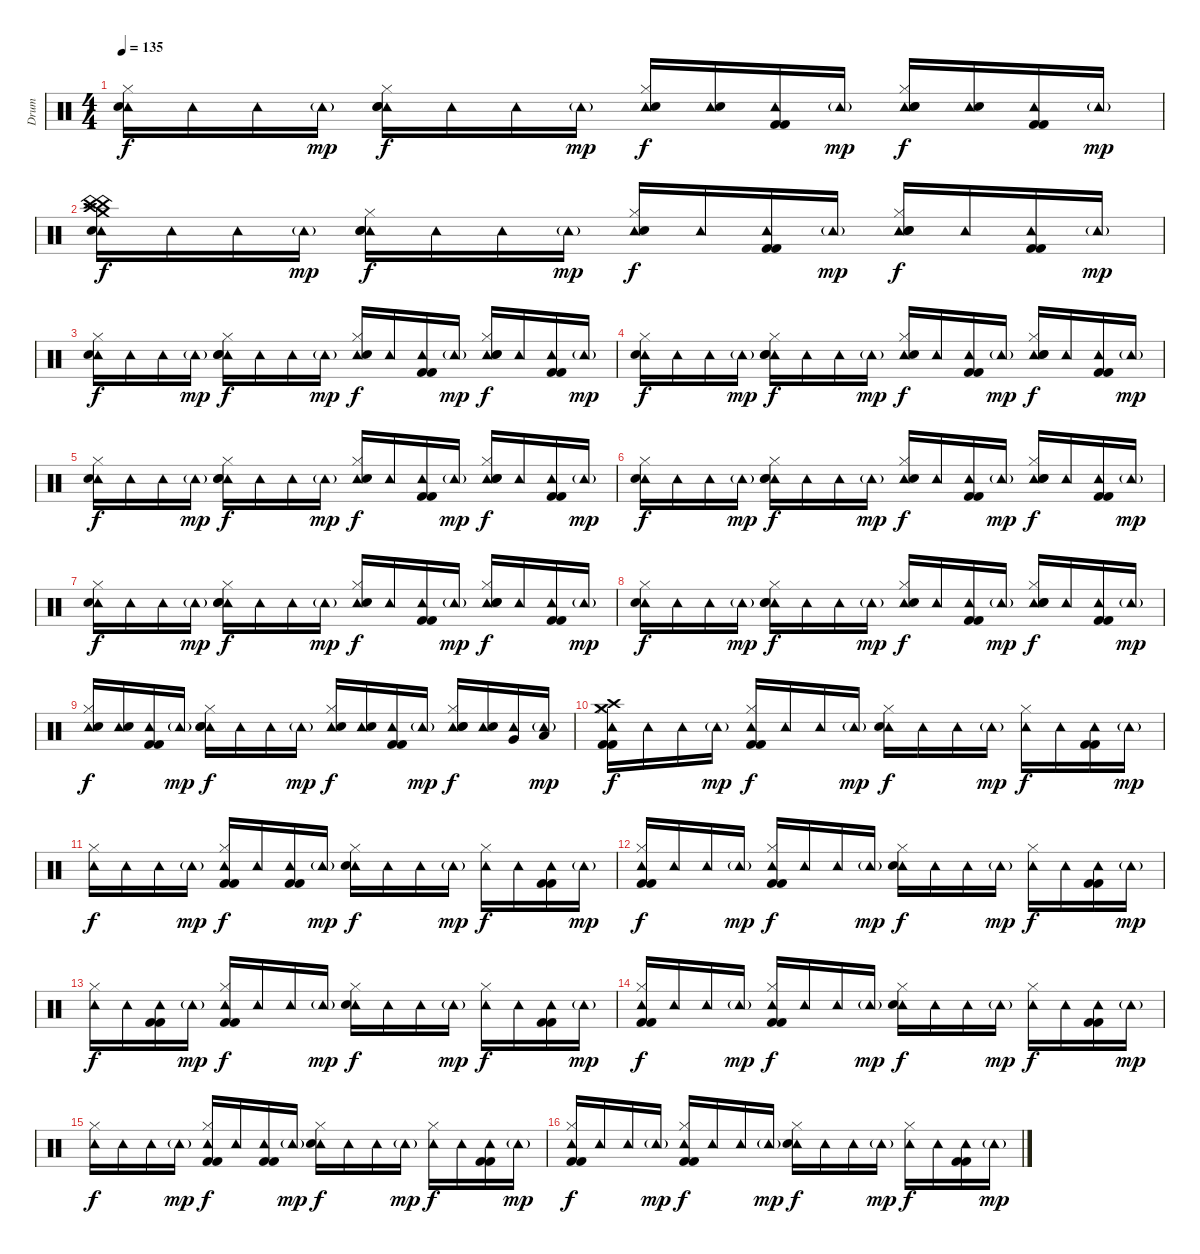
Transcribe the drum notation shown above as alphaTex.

\track ("Drum" "Drum") {instrument percussion}
\staff {score}
\articulation defaults
\ts (4 4)
\tempo 135
\clef neutral
\ks c
("Tambourine (hit)" "Hi-Hat (closed)" "Electric Snare (hit)").16{dy f} "Tambourine (hit)".16 "Tambourine (hit)".16 "Tambourine (hit)"{g}.16{dy mp} ("Tambourine (hit)" "Hi-Hat (closed)" "Hand Clap (hit)" "Electric Snare (hit)").16{dy f} "Tambourine (hit)".16 "Tambourine (hit)".16 "Tambourine (hit)"{g}.16{dy mp} ("Tambourine (hit)" "Hi-Hat (closed)" "Electric Snare (hit)").16{dy f} ("Tambourine (hit)" "Electric Snare (hit)").16 ("Tambourine (hit)" "Kick (hit) 2" "Kick (hit) 2").16 "Tambourine (hit)"{g}.16{dy mp} ("Tambourine (hit)" "Hi-Hat (closed)" "Hand Clap (hit)" "Electric Snare (hit)").16{dy f} ("Tambourine (hit)" "Electric Snare (hit)").16 ("Tambourine (hit)" "Kick (hit) 2" "Kick (hit) 2").16 "Tambourine (hit)"{g}.16{dy mp} |
("China (hit)" "Tambourine (hit)" "Crash medium (hit)" "China (hit)" "Electric Snare (hit)" "Crash high (hit)").16{dy f} "Tambourine (hit)".16 "Tambourine (hit)".16 "Tambourine (hit)"{g}.16{dy mp} ("Tambourine (hit)" "Hi-Hat (closed)" "Hand Clap (hit)" "Electric Snare (hit)").16{dy f} "Tambourine (hit)".16 "Tambourine (hit)".16 "Tambourine (hit)"{g}.16{dy mp} ("Tambourine (hit)" "Hi-Hat (closed)" "Electric Snare (hit)").16{dy f} "Tambourine (hit)".16 ("Tambourine (hit)" "Kick (hit) 2" "Kick (hit) 2").16 "Tambourine (hit)"{g}.16{dy mp} ("Tambourine (hit)" "Hi-Hat (closed)" "Hand Clap (hit)" "Electric Snare (hit)").16{dy f} "Tambourine (hit)".16 ("Tambourine (hit)" "Kick (hit) 2" "Kick (hit) 2").16 "Tambourine (hit)"{g}.16{dy mp} |
("Tambourine (hit)" "Hi-Hat (closed)" "Electric Snare (hit)").16{dy f} "Tambourine (hit)".16 "Tambourine (hit)".16 "Tambourine (hit)"{g}.16{dy mp} ("Tambourine (hit)" "Hi-Hat (closed)" "Hand Clap (hit)" "Electric Snare (hit)").16{dy f} "Tambourine (hit)".16 "Tambourine (hit)".16 "Tambourine (hit)"{g}.16{dy mp} ("Tambourine (hit)" "Hi-Hat (closed)" "Electric Snare (hit)").16{dy f} "Tambourine (hit)".16 ("Tambourine (hit)" "Kick (hit) 2" "Kick (hit) 2").16 "Tambourine (hit)"{g}.16{dy mp} ("Tambourine (hit)" "Hi-Hat (closed)" "Hand Clap (hit)" "Electric Snare (hit)").16{dy f} "Tambourine (hit)".16 ("Tambourine (hit)" "Kick (hit) 2" "Kick (hit) 2").16 "Tambourine (hit)"{g}.16{dy mp} |
("Tambourine (hit)" "Hi-Hat (closed)" "Electric Snare (hit)").16{dy f} "Tambourine (hit)".16 "Tambourine (hit)".16 "Tambourine (hit)"{g}.16{dy mp} ("Tambourine (hit)" "Hi-Hat (closed)" "Hand Clap (hit)" "Electric Snare (hit)").16{dy f} "Tambourine (hit)".16 "Tambourine (hit)".16 "Tambourine (hit)"{g}.16{dy mp} ("Tambourine (hit)" "Hi-Hat (closed)" "Electric Snare (hit)").16{dy f} "Tambourine (hit)".16 ("Tambourine (hit)" "Kick (hit) 2" "Kick (hit) 2").16 "Tambourine (hit)"{g}.16{dy mp} ("Tambourine (hit)" "Hi-Hat (closed)" "Hand Clap (hit)" "Electric Snare (hit)").16{dy f} "Tambourine (hit)".16 ("Tambourine (hit)" "Kick (hit) 2" "Kick (hit) 2").16 "Tambourine (hit)"{g}.16{dy mp} |
("Tambourine (hit)" "Hi-Hat (closed)" "Electric Snare (hit)").16{dy f} "Tambourine (hit)".16 "Tambourine (hit)".16 "Tambourine (hit)"{g}.16{dy mp} ("Tambourine (hit)" "Hi-Hat (closed)" "Hand Clap (hit)" "Electric Snare (hit)").16{dy f} "Tambourine (hit)".16 "Tambourine (hit)".16 "Tambourine (hit)"{g}.16{dy mp} ("Tambourine (hit)" "Hi-Hat (closed)" "Electric Snare (hit)").16{dy f} "Tambourine (hit)".16 ("Tambourine (hit)" "Kick (hit) 2" "Kick (hit) 2").16 "Tambourine (hit)"{g}.16{dy mp} ("Tambourine (hit)" "Hi-Hat (closed)" "Hand Clap (hit)" "Electric Snare (hit)").16{dy f} "Tambourine (hit)".16 ("Tambourine (hit)" "Kick (hit) 2" "Kick (hit) 2").16 "Tambourine (hit)"{g}.16{dy mp} |
("Tambourine (hit)" "Hi-Hat (closed)" "Electric Snare (hit)").16{dy f} "Tambourine (hit)".16 "Tambourine (hit)".16 "Tambourine (hit)"{g}.16{dy mp} ("Tambourine (hit)" "Hi-Hat (closed)" "Hand Clap (hit)" "Electric Snare (hit)").16{dy f} "Tambourine (hit)".16 "Tambourine (hit)".16 "Tambourine (hit)"{g}.16{dy mp} ("Tambourine (hit)" "Hi-Hat (closed)" "Electric Snare (hit)").16{dy f} "Tambourine (hit)".16 ("Tambourine (hit)" "Kick (hit) 2" "Kick (hit) 2").16 "Tambourine (hit)"{g}.16{dy mp} ("Tambourine (hit)" "Hi-Hat (closed)" "Hand Clap (hit)" "Electric Snare (hit)").16{dy f} "Tambourine (hit)".16 ("Tambourine (hit)" "Kick (hit) 2" "Kick (hit) 2").16 "Tambourine (hit)"{g}.16{dy mp} |
("Tambourine (hit)" "Hi-Hat (closed)" "Electric Snare (hit)").16{dy f} "Tambourine (hit)".16 "Tambourine (hit)".16 "Tambourine (hit)"{g}.16{dy mp} ("Tambourine (hit)" "Hi-Hat (closed)" "Hand Clap (hit)" "Electric Snare (hit)").16{dy f} "Tambourine (hit)".16 "Tambourine (hit)".16 "Tambourine (hit)"{g}.16{dy mp} ("Tambourine (hit)" "Hi-Hat (closed)" "Electric Snare (hit)").16{dy f} "Tambourine (hit)".16 ("Tambourine (hit)" "Kick (hit) 2" "Kick (hit) 2").16 "Tambourine (hit)"{g}.16{dy mp} ("Tambourine (hit)" "Hi-Hat (closed)" "Hand Clap (hit)" "Electric Snare (hit)").16{dy f} "Tambourine (hit)".16 ("Tambourine (hit)" "Kick (hit) 2" "Kick (hit) 2").16 "Tambourine (hit)"{g}.16{dy mp} |
("Tambourine (hit)" "Hi-Hat (closed)" "Electric Snare (hit)").16{dy f} "Tambourine (hit)".16 "Tambourine (hit)".16 "Tambourine (hit)"{g}.16{dy mp} ("Tambourine (hit)" "Hi-Hat (closed)" "Hand Clap (hit)" "Electric Snare (hit)").16{dy f} "Tambourine (hit)".16 "Tambourine (hit)".16 "Tambourine (hit)"{g}.16{dy mp} ("Tambourine (hit)" "Hi-Hat (closed)" "Electric Snare (hit)").16{dy f} "Tambourine (hit)".16 ("Tambourine (hit)" "Kick (hit) 2" "Kick (hit) 2").16 "Tambourine (hit)"{g}.16{dy mp} ("Tambourine (hit)" "Hi-Hat (closed)" "Hand Clap (hit)" "Electric Snare (hit)").16{dy f} "Tambourine (hit)".16 ("Tambourine (hit)" "Kick (hit) 2" "Kick (hit) 2").16 "Tambourine (hit)"{g}.16{dy mp} |
("Tambourine (hit)" "Hi-Hat (closed)" "Electric Snare (hit)").16{dy f} ("Tambourine (hit)" "Electric Snare (hit)").16 ("Tambourine (hit)" "Kick (hit) 2" "Kick (hit) 2").16 "Tambourine (hit)"{g}.16{dy mp} ("Tambourine (hit)" "Hi-Hat (closed)" "Hand Clap (hit)" "Electric Snare (hit)").16{dy f} "Tambourine (hit)".16 "Tambourine (hit)".16 "Tambourine (hit)"{g}.16{dy mp} ("Tambourine (hit)" "Hi-Hat (closed)" "Electric Snare (hit)").16{dy f} ("Tambourine (hit)" "Electric Snare (hit)").16 ("Tambourine (hit)" "Kick (hit) 2" "Kick (hit) 2").16 "Tambourine (hit)"{g}.16{dy mp} ("Tambourine (hit)" "Hi-Hat (closed)" "Hand Clap (hit)" "Electric Snare (hit)").16{dy f} ("Tambourine (hit)" "Electric Snare (hit)").16 ("Tambourine (hit)" "Very Low Tom (hit)").16 ("Tambourine (hit)"{g} "Low Floor Tom (hit)").16{dy mp} |
("Crash medium (hit)" "Tambourine (hit)" "Hi-Hat (closed)" "Crash high (hit)" "Kick (hit) 2" "Kick (hit) 2").16{dy f} "Tambourine (hit)".16 "Tambourine (hit)".16 "Tambourine (hit)"{g}.16{dy mp} ("Tambourine (hit)" "Hi-Hat (closed)" "Kick (hit) 2" "Kick (hit) 2").16{dy f} "Tambourine (hit)".16 "Tambourine (hit)".16 "Tambourine (hit)"{g}.16{dy mp} ("Tambourine (hit)" "Hi-Hat (closed)" "Electric Snare (hit)").16{dy f} "Tambourine (hit)".16 "Tambourine (hit)".16 "Tambourine (hit)"{g}.16{dy mp} ("Tambourine (hit)" "Hi-Hat (closed)").16{dy f} "Tambourine (hit)".16 ("Tambourine (hit)" "Kick (hit) 2" "Kick (hit) 2").16 "Tambourine (hit)"{g}.16{dy mp} |
("Tambourine (hit)" "Hi-Hat (closed)").16{dy f} "Tambourine (hit)".16 "Tambourine (hit)".16 "Tambourine (hit)"{g}.16{dy mp} ("Tambourine (hit)" "Hi-Hat (closed)" "Kick (hit) 2" "Kick (hit) 2").16{dy f} "Tambourine (hit)".16 ("Tambourine (hit)" "Kick (hit) 2" "Kick (hit) 2").16 "Tambourine (hit)"{g}.16{dy mp} ("Tambourine (hit)" "Hi-Hat (closed)" "Electric Snare (hit)").16{dy f} "Tambourine (hit)".16 "Tambourine (hit)".16 "Tambourine (hit)"{g}.16{dy mp} ("Tambourine (hit)" "Hi-Hat (closed)").16{dy f} "Tambourine (hit)".16 ("Tambourine (hit)" "Kick (hit) 2" "Kick (hit) 2").16 "Tambourine (hit)"{g}.16{dy mp} |
("Tambourine (hit)" "Hi-Hat (closed)" "Kick (hit) 2" "Kick (hit) 2").16{dy f} "Tambourine (hit)".16 "Tambourine (hit)".16 "Tambourine (hit)"{g}.16{dy mp} ("Tambourine (hit)" "Hi-Hat (closed)" "Kick (hit) 2" "Kick (hit) 2").16{dy f} "Tambourine (hit)".16 "Tambourine (hit)".16 "Tambourine (hit)"{g}.16{dy mp} ("Tambourine (hit)" "Hi-Hat (closed)" "Electric Snare (hit)").16{dy f} "Tambourine (hit)".16 "Tambourine (hit)".16 "Tambourine (hit)"{g}.16{dy mp} ("Tambourine (hit)" "Hi-Hat (closed)").16{dy f} "Tambourine (hit)".16 ("Tambourine (hit)" "Kick (hit) 2" "Kick (hit) 2").16 "Tambourine (hit)"{g}.16{dy mp} |
("Tambourine (hit)" "Hi-Hat (closed)").16{dy f} "Tambourine (hit)".16 ("Tambourine (hit)" "Kick (hit) 2" "Kick (hit) 2").16 "Tambourine (hit)"{g}.16{dy mp} ("Tambourine (hit)" "Hi-Hat (closed)" "Kick (hit) 2" "Kick (hit) 2").16{dy f} "Tambourine (hit)".16 "Tambourine (hit)".16 "Tambourine (hit)"{g}.16{dy mp} ("Tambourine (hit)" "Hi-Hat (closed)" "Electric Snare (hit)").16{dy f} "Tambourine (hit)".16 "Tambourine (hit)".16 "Tambourine (hit)"{g}.16{dy mp} ("Tambourine (hit)" "Hi-Hat (closed)").16{dy f} "Tambourine (hit)".16 ("Tambourine (hit)" "Kick (hit) 2" "Kick (hit) 2").16 "Tambourine (hit)"{g}.16{dy mp} |
("Tambourine (hit)" "Hi-Hat (closed)" "Kick (hit) 2" "Kick (hit) 2").16{dy f} "Tambourine (hit)".16 "Tambourine (hit)".16 "Tambourine (hit)"{g}.16{dy mp} ("Tambourine (hit)" "Hi-Hat (closed)" "Kick (hit) 2" "Kick (hit) 2").16{dy f} "Tambourine (hit)".16 "Tambourine (hit)".16 "Tambourine (hit)"{g}.16{dy mp} ("Tambourine (hit)" "Hi-Hat (closed)" "Electric Snare (hit)").16{dy f} "Tambourine (hit)".16 "Tambourine (hit)".16 "Tambourine (hit)"{g}.16{dy mp} ("Tambourine (hit)" "Hi-Hat (closed)").16{dy f} "Tambourine (hit)".16 ("Tambourine (hit)" "Kick (hit) 2" "Kick (hit) 2").16 "Tambourine (hit)"{g}.16{dy mp} |
("Tambourine (hit)" "Hi-Hat (closed)").16{dy f} "Tambourine (hit)".16 "Tambourine (hit)".16 "Tambourine (hit)"{g}.16{dy mp} ("Tambourine (hit)" "Hi-Hat (closed)" "Kick (hit) 2" "Kick (hit) 2").16{dy f} "Tambourine (hit)".16 ("Tambourine (hit)" "Kick (hit) 2" "Kick (hit) 2").16 "Tambourine (hit)"{g}.16{dy mp} ("Tambourine (hit)" "Hi-Hat (closed)" "Electric Snare (hit)").16{dy f} "Tambourine (hit)".16 "Tambourine (hit)".16 "Tambourine (hit)"{g}.16{dy mp} ("Tambourine (hit)" "Hi-Hat (closed)").16{dy f} "Tambourine (hit)".16 ("Tambourine (hit)" "Kick (hit) 2" "Kick (hit) 2").16 "Tambourine (hit)"{g}.16{dy mp} |
("Tambourine (hit)" "Hi-Hat (closed)" "Kick (hit) 2" "Kick (hit) 2").16{dy f} "Tambourine (hit)".16 "Tambourine (hit)".16 "Tambourine (hit)"{g}.16{dy mp} ("Tambourine (hit)" "Hi-Hat (closed)" "Kick (hit) 2" "Kick (hit) 2").16{dy f} "Tambourine (hit)".16 "Tambourine (hit)".16 "Tambourine (hit)"{g}.16{dy mp} ("Tambourine (hit)" "Hi-Hat (closed)" "Electric Snare (hit)").16{dy f} "Tambourine (hit)".16 "Tambourine (hit)".16 "Tambourine (hit)"{g}.16{dy mp} ("Tambourine (hit)" "Hi-Hat (closed)").16{dy f} "Tambourine (hit)".16 ("Tambourine (hit)" "Kick (hit) 2" "Kick (hit) 2").16 "Tambourine (hit)"{g}.16{dy mp}
